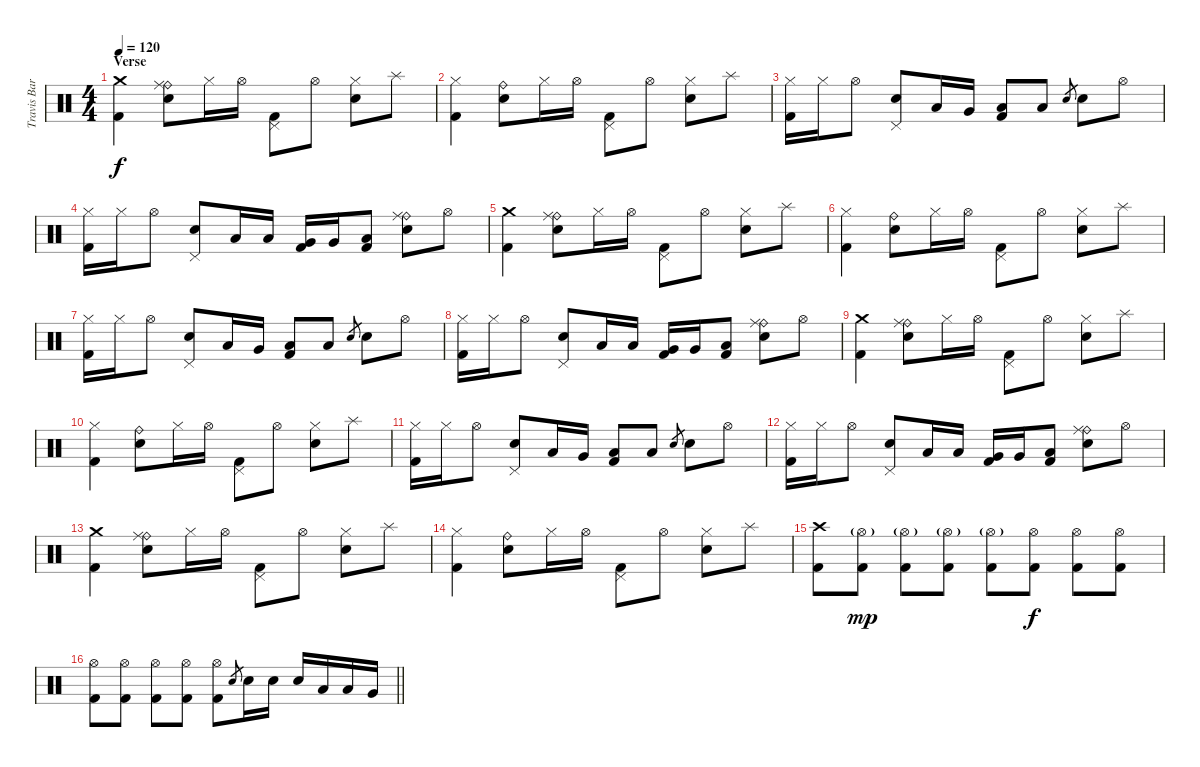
\track ("Travis Barker - Drums" "Travis Bar") {instrument percussion}
\staff {score}
\articulation defaults
\ts (4 4)
\section ("" "Verse")
\tempo 120
\clef neutral
\ks c
("Crash medium (hit)" "Kick (hit) 2").4{dy f} ("Ride (bell)" "Ride (middle)" "Electric Snare (hit)").8 "Hi-Hat (closed)".16 "Hi-Hat (open)".16 ("Pedal Hi-Hat (hit)" "Kick (hit) 2").8 "Hi-Hat (open)".8 ("Hi-Hat (closed)" "Electric Snare (hit)").8 "Splash (hit)".8 |
("Hi-Hat (closed)" "Kick (hit) 2").4 ("Ride (bell)" "Electric Snare (hit)").8 "Hi-Hat (closed)".16 "Hi-Hat (open)".16 ("Pedal Hi-Hat (hit)" "Kick (hit) 2").8 "Hi-Hat (open)".8 ("Hi-Hat (closed)" "Electric Snare (hit)").8 "Splash (hit)".8 |
("Hi-Hat (closed)" "Kick (hit) 2").16 "Hi-Hat (closed)".16 "Hi-Hat (open)".8 ("Pedal Hi-Hat (hit)" "Electric Snare (hit)").8 "Low Tom (hit)".16 "Very Low Tom (hit)".16 ("Low Floor Tom (hit)" "Kick (hit) 2").8 "Low Floor Tom (hit)".8 "Electric Snare (hit)".8{gr} "Electric Snare (hit)".8 "Hi-Hat (open)".8 |
("Hi-Hat (closed)" "Kick (hit) 2").16 "Hi-Hat (closed)".16 "Hi-Hat (open)".8 ("Pedal Hi-Hat (hit)" "Electric Snare (hit)").8 "Low Tom (hit)".16 "Low Tom (hit)".16 ("Very Low Tom (hit)" "Kick (hit) 2").16 "Very Low Tom (hit)".16 ("Low Floor Tom (hit)" "Kick (hit) 2").8 ("Ride (bell)" "Ride (middle)" "Electric Snare (hit)").8 "Hi-Hat (open)".8 |
("Crash medium (hit)" "Kick (hit) 2").4 ("Ride (bell)" "Ride (middle)" "Electric Snare (hit)").8 "Hi-Hat (closed)".16 "Hi-Hat (open)".16 ("Pedal Hi-Hat (hit)" "Kick (hit) 2").8 "Hi-Hat (open)".8 ("Hi-Hat (closed)" "Electric Snare (hit)").8 "Splash (hit)".8 |
("Hi-Hat (closed)" "Kick (hit) 2").4 ("Ride (bell)" "Electric Snare (hit)").8 "Hi-Hat (closed)".16 "Hi-Hat (open)".16 ("Pedal Hi-Hat (hit)" "Kick (hit) 2").8 "Hi-Hat (open)".8 ("Hi-Hat (closed)" "Electric Snare (hit)").8 "Splash (hit)".8 |
("Hi-Hat (closed)" "Kick (hit) 2").16 "Hi-Hat (closed)".16 "Hi-Hat (open)".8 ("Pedal Hi-Hat (hit)" "Electric Snare (hit)").8 "Low Tom (hit)".16 "Very Low Tom (hit)".16 ("Low Floor Tom (hit)" "Kick (hit) 2").8 "Low Floor Tom (hit)".8 "Electric Snare (hit)".8{gr} "Electric Snare (hit)".8 "Hi-Hat (open)".8 |
("Hi-Hat (closed)" "Kick (hit) 2").16 "Hi-Hat (closed)".16 "Hi-Hat (open)".8 ("Pedal Hi-Hat (hit)" "Electric Snare (hit)").8 "Low Tom (hit)".16 "Low Tom (hit)".16 ("Very Low Tom (hit)" "Kick (hit) 2").16 "Very Low Tom (hit)".16 ("Low Floor Tom (hit)" "Kick (hit) 2").8 ("Ride (bell)" "Ride (middle)" "Electric Snare (hit)").8 "Hi-Hat (open)".8 |
("Crash medium (hit)" "Kick (hit) 2").4 ("Ride (bell)" "Ride (middle)" "Electric Snare (hit)").8 "Hi-Hat (closed)".16 "Hi-Hat (open)".16 ("Pedal Hi-Hat (hit)" "Kick (hit) 2").8 "Hi-Hat (open)".8 ("Hi-Hat (closed)" "Electric Snare (hit)").8 "Splash (hit)".8 |
("Hi-Hat (closed)" "Kick (hit) 2").4 ("Ride (bell)" "Electric Snare (hit)").8 "Hi-Hat (closed)".16 "Hi-Hat (open)".16 ("Pedal Hi-Hat (hit)" "Kick (hit) 2").8 "Hi-Hat (open)".8 ("Hi-Hat (closed)" "Electric Snare (hit)").8 "Splash (hit)".8 |
("Hi-Hat (closed)" "Kick (hit) 2").16 "Hi-Hat (closed)".16 "Hi-Hat (open)".8 ("Pedal Hi-Hat (hit)" "Electric Snare (hit)").8 "Low Tom (hit)".16 "Very Low Tom (hit)".16 ("Low Floor Tom (hit)" "Kick (hit) 2").8 "Low Floor Tom (hit)".8 "Electric Snare (hit)".8{gr} "Electric Snare (hit)".8 "Hi-Hat (open)".8 |
("Hi-Hat (closed)" "Kick (hit) 2").16 "Hi-Hat (closed)".16 "Hi-Hat (open)".8 ("Pedal Hi-Hat (hit)" "Electric Snare (hit)").8 "Low Tom (hit)".16 "Low Tom (hit)".16 ("Very Low Tom (hit)" "Kick (hit) 2").16 "Very Low Tom (hit)".16 ("Low Floor Tom (hit)" "Kick (hit) 2").8 ("Ride (bell)" "Ride (middle)" "Electric Snare (hit)").8 "Hi-Hat (open)".8 |
("Crash medium (hit)" "Kick (hit) 2").4 ("Ride (bell)" "Ride (middle)" "Electric Snare (hit)").8 "Hi-Hat (closed)".16 "Hi-Hat (open)".16 ("Pedal Hi-Hat (hit)" "Kick (hit) 2").8 "Hi-Hat (open)".8 ("Hi-Hat (closed)" "Electric Snare (hit)").8 "Splash (hit)".8 |
("Hi-Hat (closed)" "Kick (hit) 2").4 ("Ride (bell)" "Electric Snare (hit)").8 "Hi-Hat (closed)".16 "Hi-Hat (open)".16 ("Pedal Hi-Hat (hit)" "Kick (hit) 2").8 "Hi-Hat (open)".8 ("Hi-Hat (closed)" "Electric Snare (hit)").8 "Splash (hit)".8 |
("Crash high (hit)" "Kick (hit) 2").8 ("Hi-Hat (open)"{g} "Kick (hit) 2").8{dy mp} ("Hi-Hat (open)"{g} "Kick (hit) 2").8 ("Hi-Hat (open)"{g} "Kick (hit) 2").8 ("Hi-Hat (open)"{g} "Kick (hit) 2").8 ("Hi-Hat (open)" "Kick (hit) 2").8{dy f} ("Hi-Hat (open)" "Kick (hit) 2").8 ("Hi-Hat (open)" "Kick (hit) 2").8 |
\barLineRight lightlight
("Hi-Hat (open)" "Kick (hit) 2").8 ("Hi-Hat (open)" "Kick (hit) 2").8 ("Hi-Hat (open)" "Kick (hit) 2").8 ("Hi-Hat (open)" "Kick (hit) 2").8 ("Hi-Hat (open)" "Kick (hit) 2").8 "Electric Snare (hit)".8{gr} "Electric Snare (hit)".16 "Electric Snare (hit)".16 "Electric Snare (hit)".16 "Low Tom (hit)".16 "Low Tom (hit)".16 "Very Low Tom (hit)".16
